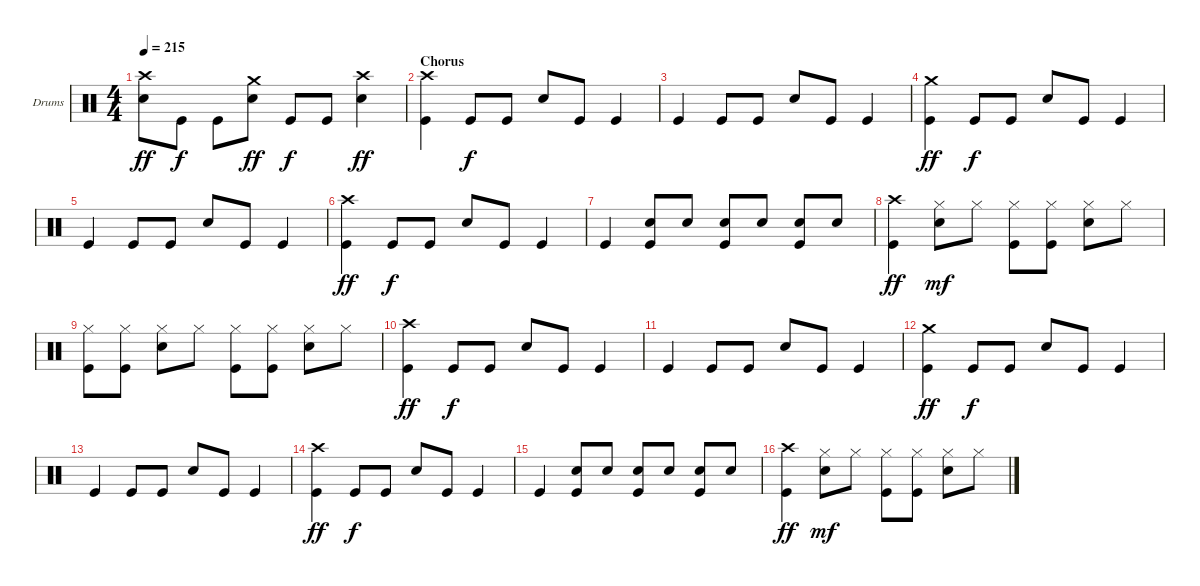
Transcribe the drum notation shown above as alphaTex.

\bracketExtendMode groupsimilarinstruments
\firstSystemTrackNameOrientation horizontal
\otherSystemsTrackNameOrientation horizontal
\track ("Drumkit" "Drums") {instrument percussion}
\staff {score}
\articulation defaults
\ts (4 4)
\tempo 215
\clef neutral
\ks c
("Crash high (hit)" "Snare (hit) 2").8{dy ff} "Kick (hit)".8{dy f} "Kick (hit)".8 ("Crash medium (hit)" "Snare (hit) 2").8{dy ff} "Kick (hit)".8{dy f} "Kick (hit)".8 ("Crash high (hit)" "Snare (hit) 2").4{dy ff} |
\section ("" "Chorus")
("Crash high (hit)" "Kick (hit)").4 "Kick (hit)".8{dy f} "Kick (hit)".8 "Snare (hit) 2".8 "Kick (hit)".8 "Kick (hit)".4 |
"Kick (hit)".4 "Kick (hit)".8 "Kick (hit)".8 "Snare (hit) 2".8 "Kick (hit)".8 "Kick (hit)".4 |
("Crash medium (hit)" "Kick (hit)").4{dy ff} "Kick (hit)".8{dy f} "Kick (hit)".8 "Snare (hit) 2".8 "Kick (hit)".8 "Kick (hit)".4 |
"Kick (hit)".4 "Kick (hit)".8 "Kick (hit)".8 "Snare (hit) 2".8 "Kick (hit)".8 "Kick (hit)".4 |
("Crash high (hit)" "Kick (hit)").4{dy ff} "Kick (hit)".8{dy f} "Kick (hit)".8 "Snare (hit) 2".8 "Kick (hit)".8 "Kick (hit)".4 |
"Kick (hit)".4 ("Snare (hit) 2" "Kick (hit)").8 "Snare (hit) 2".8 ("Snare (hit) 2" "Kick (hit)").8 "Snare (hit) 2".8 ("Snare (hit) 2" "Kick (hit)").8 "Snare (hit) 2".8 |
("Crash high (hit)" "Kick (hit)").4{dy ff} ("Hi-Hat (closed)" "Snare (hit) 2").8{dy mf} "Hi-Hat (closed)".8 ("Hi-Hat (closed)" "Kick (hit)").8 ("Hi-Hat (closed)" "Kick (hit)").8 ("Hi-Hat (closed)" "Snare (hit) 2").8 "Hi-Hat (closed)".8 |
("Hi-Hat (closed)" "Kick (hit)").8 ("Hi-Hat (closed)" "Kick (hit)").8 ("Hi-Hat (closed)" "Snare (hit) 2").8 "Hi-Hat (closed)".8 ("Hi-Hat (closed)" "Kick (hit)").8 ("Hi-Hat (closed)" "Kick (hit)").8 ("Hi-Hat (closed)" "Snare (hit) 2").8 "Hi-Hat (closed)".8 |
("Crash high (hit)" "Kick (hit)").4{dy ff} "Kick (hit)".8{dy f} "Kick (hit)".8 "Snare (hit) 2".8 "Kick (hit)".8 "Kick (hit)".4 |
"Kick (hit)".4 "Kick (hit)".8 "Kick (hit)".8 "Snare (hit) 2".8 "Kick (hit)".8 "Kick (hit)".4 |
("Crash medium (hit)" "Kick (hit)").4{dy ff} "Kick (hit)".8{dy f} "Kick (hit)".8 "Snare (hit) 2".8 "Kick (hit)".8 "Kick (hit)".4 |
"Kick (hit)".4 "Kick (hit)".8 "Kick (hit)".8 "Snare (hit) 2".8 "Kick (hit)".8 "Kick (hit)".4 |
("Crash high (hit)" "Kick (hit)").4{dy ff} "Kick (hit)".8{dy f} "Kick (hit)".8 "Snare (hit) 2".8 "Kick (hit)".8 "Kick (hit)".4 |
"Kick (hit)".4 ("Snare (hit) 2" "Kick (hit)").8 "Snare (hit) 2".8 ("Snare (hit) 2" "Kick (hit)").8 "Snare (hit) 2".8 ("Snare (hit) 2" "Kick (hit)").8 "Snare (hit) 2".8 |
("Crash high (hit)" "Kick (hit)").4{dy ff} ("Hi-Hat (closed)" "Snare (hit) 2").8{dy mf} "Hi-Hat (closed)".8 ("Hi-Hat (closed)" "Kick (hit)").8 ("Hi-Hat (closed)" "Kick (hit)").8 ("Hi-Hat (closed)" "Snare (hit) 2").8 "Hi-Hat (closed)".8
